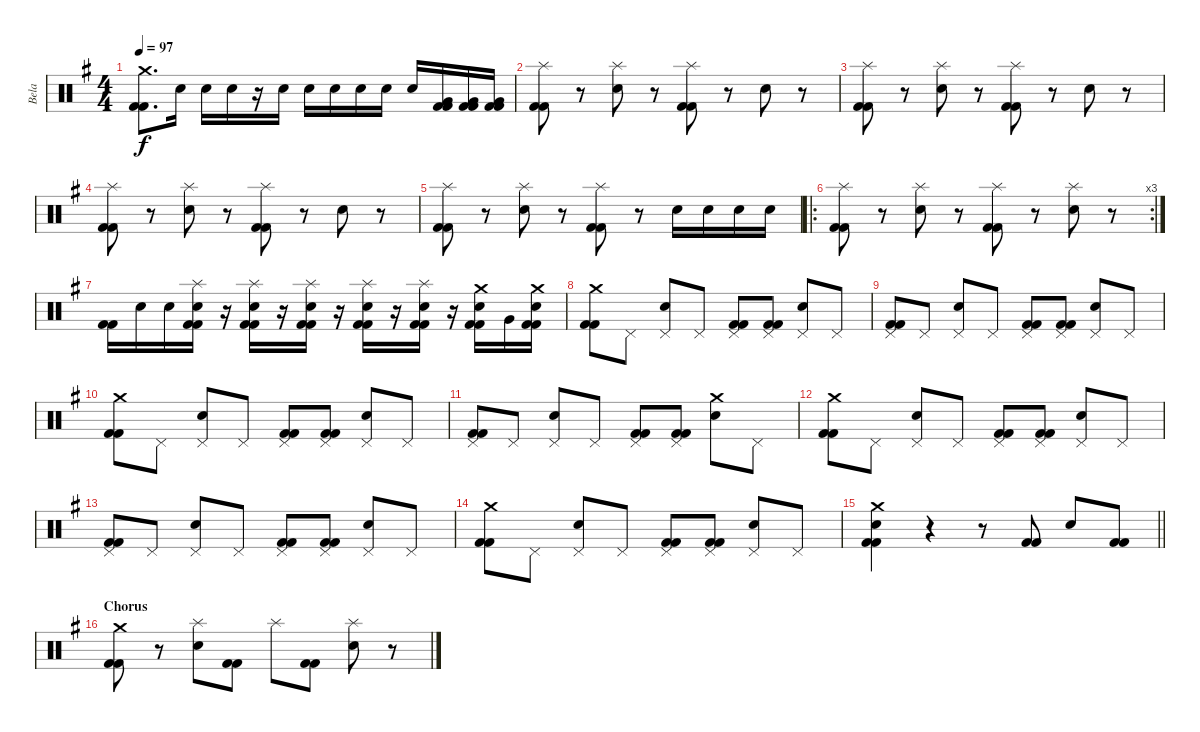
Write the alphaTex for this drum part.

\track ("Bela" "Bela") {instrument percussion}
\staff {score}
\articulation defaults
\ts (4 4)
\tempo 97
\clef neutral
\ks g
("Crash medium (hit)" "Kick (hit) 2" "Kick (hit) 2").8{d dy f} "Snare (hit) 2".16 "Snare (hit) 2".16 "Snare (hit) 2".16 r.16 "Snare (hit) 2".16 "Snare (hit) 2".16 "Snare (hit) 2".16 "Snare (hit) 2".16 "Snare (hit) 2".16 "Snare (hit) 2".16 ("Very Low Tom (hit)" "Kick (hit) 2" "Kick (hit) 2").16 ("Very Low Tom (hit)" "Kick (hit) 2" "Kick (hit) 2").16 ("Very Low Tom (hit)" "Kick (hit) 2" "Kick (hit) 2").16 |
("Splash (hit)" "Kick (hit) 2" "Kick (hit) 2").8 r.8 ("Splash (hit)" "Snare (hit) 2").8 r.8 ("Splash (hit)" "Kick (hit) 2" "Kick (hit) 2").8 r.8 "Snare (hit) 2".8 r.8 |
("Splash (hit)" "Kick (hit) 2" "Kick (hit) 2").8 r.8 ("Splash (hit)" "Snare (hit) 2").8 r.8 ("Splash (hit)" "Kick (hit) 2" "Kick (hit) 2").8 r.8 "Snare (hit) 2".8 r.8 |
("Splash (hit)" "Kick (hit) 2" "Kick (hit) 2").8 r.8 ("Splash (hit)" "Snare (hit) 2").8 r.8 ("Splash (hit)" "Kick (hit) 2" "Kick (hit) 2").8 r.8 "Snare (hit) 2".8 r.8 |
("Splash (hit)" "Kick (hit) 2" "Kick (hit) 2").8 r.8 ("Splash (hit)" "Snare (hit) 2").8 r.8 ("Splash (hit)" "Kick (hit) 2" "Kick (hit) 2").8 r.8 "Snare (hit) 2".16 "Snare (hit) 2".16 "Snare (hit) 2".16 "Snare (hit) 2".16 |
\ro
\rc 3
("Splash (hit)" "Kick (hit) 2" "Kick (hit) 2").8 r.8 ("Splash (hit)" "Snare (hit) 2").8 r.8 ("Splash (hit)" "Kick (hit) 2" "Kick (hit) 2").8 r.8 ("Splash (hit)" "Snare (hit) 2").8 r.8 |
("Kick (hit) 2" "Kick (hit) 2").16 "Snare (hit) 2".16 "Snare (hit) 2".16 ("Splash (hit)" "Snare (hit) 2" "Kick (hit) 2" "Kick (hit) 2").16 r.16 ("Splash (hit)" "Snare (hit) 2" "Kick (hit) 2" "Kick (hit) 2").16 r.16 ("Splash (hit)" "Snare (hit) 2" "Kick (hit) 2" "Kick (hit) 2").16 r.16 ("Splash (hit)" "Snare (hit) 2" "Kick (hit) 2" "Kick (hit) 2").16 r.16 ("Splash (hit)" "Snare (hit) 2" "Kick (hit) 2" "Kick (hit) 2").16 r.16 ("Crash medium (hit)" "Snare (hit) 2" "Kick (hit) 2" "Kick (hit) 2").16 "Very Low Tom (hit)".16 ("Crash medium (hit)" "Snare (hit) 2" "Kick (hit) 2" "Kick (hit) 2").16 |
("Crash medium (hit)" "Kick (hit) 2" "Kick (hit) 2").8 "Pedal Hi-Hat (hit)".8 ("Pedal Hi-Hat (hit)" "Snare (hit) 2").8 "Pedal Hi-Hat (hit)".8 ("Pedal Hi-Hat (hit)" "Kick (hit) 2" "Kick (hit) 2").8 ("Pedal Hi-Hat (hit)" "Kick (hit) 2" "Kick (hit) 2").8 ("Pedal Hi-Hat (hit)" "Snare (hit) 2").8 "Pedal Hi-Hat (hit)".8 |
("Pedal Hi-Hat (hit)" "Kick (hit) 2" "Kick (hit) 2").8 "Pedal Hi-Hat (hit)".8 ("Pedal Hi-Hat (hit)" "Snare (hit) 2").8 "Pedal Hi-Hat (hit)".8 ("Pedal Hi-Hat (hit)" "Kick (hit) 2" "Kick (hit) 2").8 ("Pedal Hi-Hat (hit)" "Kick (hit) 2" "Kick (hit) 2").8 ("Pedal Hi-Hat (hit)" "Snare (hit) 2").8 "Pedal Hi-Hat (hit)".8 |
("Crash medium (hit)" "Kick (hit) 2" "Kick (hit) 2").8 "Pedal Hi-Hat (hit)".8 ("Pedal Hi-Hat (hit)" "Snare (hit) 2").8 "Pedal Hi-Hat (hit)".8 ("Pedal Hi-Hat (hit)" "Kick (hit) 2" "Kick (hit) 2").8 ("Pedal Hi-Hat (hit)" "Kick (hit) 2" "Kick (hit) 2").8 ("Pedal Hi-Hat (hit)" "Snare (hit) 2").8 "Pedal Hi-Hat (hit)".8 |
("Pedal Hi-Hat (hit)" "Kick (hit) 2" "Kick (hit) 2").8 "Pedal Hi-Hat (hit)".8 ("Pedal Hi-Hat (hit)" "Snare (hit) 2").8 "Pedal Hi-Hat (hit)".8 ("Pedal Hi-Hat (hit)" "Kick (hit) 2" "Kick (hit) 2").8 ("Pedal Hi-Hat (hit)" "Kick (hit) 2" "Kick (hit) 2").8 ("Crash medium (hit)" "Snare (hit) 2").8 "Pedal Hi-Hat (hit)".8 |
("Crash medium (hit)" "Kick (hit) 2" "Kick (hit) 2").8 "Pedal Hi-Hat (hit)".8 ("Pedal Hi-Hat (hit)" "Snare (hit) 2").8 "Pedal Hi-Hat (hit)".8 ("Pedal Hi-Hat (hit)" "Kick (hit) 2" "Kick (hit) 2").8 ("Pedal Hi-Hat (hit)" "Kick (hit) 2" "Kick (hit) 2").8 ("Pedal Hi-Hat (hit)" "Snare (hit) 2").8 "Pedal Hi-Hat (hit)".8 |
("Pedal Hi-Hat (hit)" "Kick (hit) 2" "Kick (hit) 2").8 "Pedal Hi-Hat (hit)".8 ("Pedal Hi-Hat (hit)" "Snare (hit) 2").8 "Pedal Hi-Hat (hit)".8 ("Pedal Hi-Hat (hit)" "Kick (hit) 2" "Kick (hit) 2").8 ("Pedal Hi-Hat (hit)" "Kick (hit) 2" "Kick (hit) 2").8 ("Pedal Hi-Hat (hit)" "Snare (hit) 2").8 "Pedal Hi-Hat (hit)".8 |
("Crash medium (hit)" "Kick (hit) 2" "Kick (hit) 2").8 "Pedal Hi-Hat (hit)".8 ("Pedal Hi-Hat (hit)" "Snare (hit) 2").8 "Pedal Hi-Hat (hit)".8 ("Pedal Hi-Hat (hit)" "Kick (hit) 2" "Kick (hit) 2").8 ("Pedal Hi-Hat (hit)" "Kick (hit) 2" "Kick (hit) 2").8 ("Pedal Hi-Hat (hit)" "Snare (hit) 2").8 "Pedal Hi-Hat (hit)".8 |
\barLineRight lightlight
("Crash medium (hit)" "Snare (hit) 2" "Kick (hit) 2" "Kick (hit) 2").4 r.4 r.8 ("Kick (hit) 2" "Kick (hit) 2").8 "Snare (hit) 2".8 ("Kick (hit) 2" "Kick (hit) 2").8 |
\section ("" "Chorus")
("Crash medium (hit)" "Kick (hit) 2" "Kick (hit) 2").8 r.8 ("Splash (hit)" "Snare (hit) 2").8 ("Kick (hit) 2" "Kick (hit) 2").8 "Splash (hit)".8 ("Kick (hit) 2" "Kick (hit) 2").8 ("Splash (hit)" "Snare (hit) 2").8 r.8
